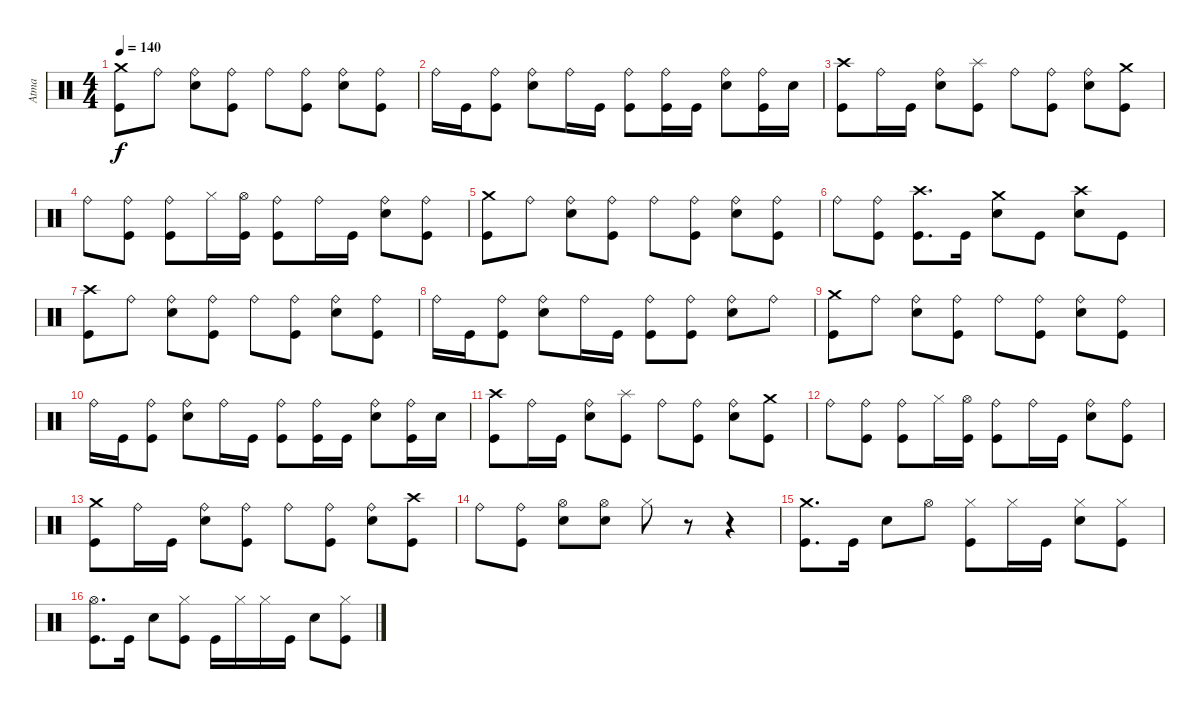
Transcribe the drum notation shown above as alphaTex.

\track ("Atma" "Atma") {instrument percussion}
\staff {score}
\articulation defaults
\ts (4 4)
\tempo 140
\clef neutral
\ks c
("Kick (hit)" "Crash medium (hit)").8{dy f} "Ride (bell)".8 ("Snare (hit) 2" "Ride (bell)").8 ("Kick (hit)" "Ride (bell)").8 "Ride (bell)".8 ("Kick (hit)" "Ride (bell)").8 ("Snare (hit) 2" "Ride (bell)").8 ("Kick (hit)" "Ride (bell)").8 |
"Ride (bell)".16 "Kick (hit)".16 ("Kick (hit)" "Ride (bell)").8 ("Snare (hit) 2" "Ride (bell)").8 "Ride (bell)".16 "Kick (hit)".16 ("Kick (hit)" "Ride (bell)").8 ("Kick (hit)" "Ride (bell)").16 "Kick (hit)".16 ("Snare (hit) 2" "Ride (bell)").8 ("Kick (hit)" "Ride (bell)").16 "Snare (hit) 2".16 |
("Kick (hit)" "Crash high (hit)").8 "Ride (bell)".16 "Kick (hit)".16 ("Snare (hit) 2" "Ride (bell)").8 ("Kick (hit)" "Splash (hit)").8 "Ride (bell)".8 ("Kick (hit)" "Ride (bell)").8 ("Snare (hit) 2" "Ride (bell)").8 ("Kick (hit)" "Crash medium (hit)").8 |
"Ride (bell)".8 ("Kick (hit)" "Ride (bell)").8 ("Kick (hit)" "Ride (bell)").8 "Hi-Hat (closed)".16 ("Kick (hit)" "Hi-Hat (open)").16 ("Kick (hit)" "Ride (bell)").8 "Ride (bell)".16 "Kick (hit)".16 ("Snare (hit) 2" "Ride (bell)").8 ("Kick (hit)" "Ride (bell)").8 |
("Kick (hit)" "Crash medium (hit)").8 "Ride (bell)".8 ("Snare (hit) 2" "Ride (bell)").8 ("Kick (hit)" "Ride (bell)").8 "Ride (bell)".8 ("Kick (hit)" "Ride (bell)").8 ("Snare (hit) 2" "Ride (bell)").8 ("Kick (hit)" "Ride (bell)").8 |
"Ride (bell)".8 ("Kick (hit)" "Ride (bell)").8 ("Kick (hit)" "Crash high (hit)").8{d} "Kick (hit)".16 ("Snare (hit) 2" "Crash medium (hit)").8 "Kick (hit)".8 ("Snare (hit) 2" "Crash high (hit)").8 "Kick (hit)".8 |
("Kick (hit)" "Crash high (hit)").8 "Ride (bell)".8 ("Snare (hit) 2" "Ride (bell)").8 ("Kick (hit)" "Ride (bell)").8 "Ride (bell)".8 ("Kick (hit)" "Ride (bell)").8 ("Snare (hit) 2" "Ride (bell)").8 ("Kick (hit)" "Ride (bell)").8 |
"Ride (bell)".16 "Kick (hit)".16 ("Kick (hit)" "Ride (bell)").8 ("Snare (hit) 2" "Ride (bell)").8 "Ride (bell)".16 "Kick (hit)".16 ("Kick (hit)" "Ride (bell)").8 ("Kick (hit)" "Ride (bell)").8 ("Snare (hit) 2" "Ride (bell)").8 "Ride (bell)".8 |
("Kick (hit)" "Crash medium (hit)").8 "Ride (bell)".8 ("Snare (hit) 2" "Ride (bell)").8 ("Kick (hit)" "Ride (bell)").8 "Ride (bell)".8 ("Kick (hit)" "Ride (bell)").8 ("Snare (hit) 2" "Ride (bell)").8 ("Kick (hit)" "Ride (bell)").8 |
"Ride (bell)".16 "Kick (hit)".16 ("Kick (hit)" "Ride (bell)").8 ("Snare (hit) 2" "Ride (bell)").8 "Ride (bell)".16 "Kick (hit)".16 ("Kick (hit)" "Ride (bell)").8 ("Kick (hit)" "Ride (bell)").16 "Kick (hit)".16 ("Snare (hit) 2" "Ride (bell)").8 ("Kick (hit)" "Ride (bell)").16 "Snare (hit) 2".16 |
("Kick (hit)" "Crash high (hit)").8 "Ride (bell)".16 "Kick (hit)".16 ("Snare (hit) 2" "Ride (bell)").8 ("Kick (hit)" "Splash (hit)").8 "Ride (bell)".8 ("Kick (hit)" "Ride (bell)").8 ("Snare (hit) 2" "Ride (bell)").8 ("Kick (hit)" "Crash medium (hit)").8 |
"Ride (bell)".8 ("Kick (hit)" "Ride (bell)").8 ("Kick (hit)" "Ride (bell)").8 "Hi-Hat (closed)".16 ("Kick (hit)" "Hi-Hat (open)").16 ("Kick (hit)" "Ride (bell)").8 "Ride (bell)".16 "Kick (hit)".16 ("Snare (hit) 2" "Ride (bell)").8 ("Kick (hit)" "Ride (bell)").8 |
("Kick (hit)" "Crash medium (hit)").8 "Ride (bell)".16 "Kick (hit)".16 ("Snare (hit) 2" "Ride (bell)").8 ("Kick (hit)" "Ride (bell)").8 "Ride (bell)".8 ("Kick (hit)" "Ride (bell)").8 ("Snare (hit) 2" "Ride (bell)").8 ("Kick (hit)" "Crash high (hit)").8 |
"Ride (bell)".8 ("Kick (hit)" "Ride (bell)").8 ("Snare (hit) 2" "Hi-Hat (open)").8 ("Snare (hit) 2" "Hi-Hat (open)").8 "Hi-Hat (closed)".8 r.8 r.4 |
("Kick (hit)" "Crash medium (hit)").8{d} "Kick (hit)".16 "Snare (hit) 2".8 "Hi-Hat (open)".8 ("Kick (hit)" "Hi-Hat (closed)").8 "Hi-Hat (closed)".16 "Kick (hit)".16 ("Snare (hit) 2" "Hi-Hat (closed)").8 ("Kick (hit)" "Hi-Hat (closed)").8 |
("Kick (hit)" "Hi-Hat (open)").8{d} "Kick (hit)".16 "Snare (hit) 2".8 ("Kick (hit)" "Hi-Hat (closed)").8 "Kick (hit)".16 "Hi-Hat (closed)".16 "Hi-Hat (closed)".16 "Kick (hit)".16 "Snare (hit) 2".8 ("Kick (hit)" "Hi-Hat (closed)").8
